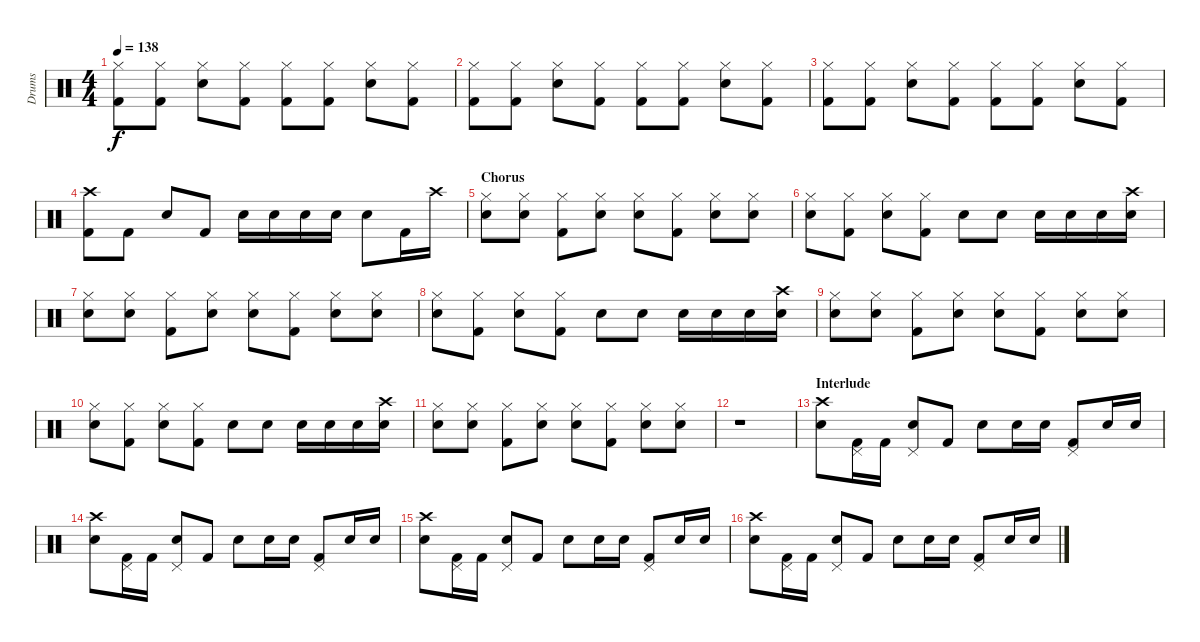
\track ("Drums" "Drums") {instrument percussion}
\staff {score}
\articulation defaults
\ts (4 4)
\tempo 138
\clef neutral
\ks c
("Hi-Hat (closed)" "Kick (hit) 2").8{dy f} ("Hi-Hat (closed)" "Kick (hit) 2").8 ("Hi-Hat (closed)" "Electric Snare (hit)").8 ("Hi-Hat (closed)" "Kick (hit) 2").8 ("Hi-Hat (closed)" "Kick (hit) 2").8 ("Hi-Hat (closed)" "Kick (hit) 2").8 ("Hi-Hat (closed)" "Electric Snare (hit)").8 ("Hi-Hat (closed)" "Kick (hit) 2").8 |
("Hi-Hat (closed)" "Kick (hit) 2").8 ("Hi-Hat (closed)" "Kick (hit) 2").8 ("Hi-Hat (closed)" "Electric Snare (hit)").8 ("Hi-Hat (closed)" "Kick (hit) 2").8 ("Hi-Hat (closed)" "Kick (hit) 2").8 ("Hi-Hat (closed)" "Kick (hit) 2").8 ("Hi-Hat (closed)" "Electric Snare (hit)").8 ("Hi-Hat (closed)" "Kick (hit) 2").8 |
("Hi-Hat (closed)" "Kick (hit) 2").8 ("Hi-Hat (closed)" "Kick (hit) 2").8 ("Hi-Hat (closed)" "Electric Snare (hit)").8 ("Hi-Hat (closed)" "Kick (hit) 2").8 ("Hi-Hat (closed)" "Kick (hit) 2").8 ("Hi-Hat (closed)" "Kick (hit) 2").8 ("Hi-Hat (closed)" "Electric Snare (hit)").8 ("Hi-Hat (closed)" "Kick (hit) 2").8 |
("Crash high (hit)" "Kick (hit) 2").8 "Kick (hit) 2".8 "Electric Snare (hit)".8 "Kick (hit) 2".8 "Electric Snare (hit)".16 "Electric Snare (hit)".16 "Electric Snare (hit)".16 "Electric Snare (hit)".16 "Electric Snare (hit)".8 "Kick (hit) 2".16 "Crash high (hit)".16 |
\section ("" "Chorus")
("Hi-Hat (closed)" "Electric Snare (hit)").8 ("Hi-Hat (closed)" "Electric Snare (hit)").8 ("Hi-Hat (closed)" "Kick (hit) 2").8 ("Hi-Hat (closed)" "Electric Snare (hit)").8 ("Hi-Hat (closed)" "Electric Snare (hit)").8 ("Hi-Hat (closed)" "Kick (hit) 2").8 ("Hi-Hat (closed)" "Electric Snare (hit)").8 ("Hi-Hat (closed)" "Electric Snare (hit)").8 |
("Hi-Hat (closed)" "Electric Snare (hit)").8 ("Hi-Hat (closed)" "Kick (hit) 2").8 ("Hi-Hat (closed)" "Electric Snare (hit)").8 ("Hi-Hat (closed)" "Kick (hit) 2").8 "Electric Snare (hit)".8 "Electric Snare (hit)".8 "Electric Snare (hit)".16 "Electric Snare (hit)".16 "Electric Snare (hit)".16 ("Crash high (hit)" "Electric Snare (hit)").16 |
("Hi-Hat (closed)" "Electric Snare (hit)").8 ("Hi-Hat (closed)" "Electric Snare (hit)").8 ("Hi-Hat (closed)" "Kick (hit) 2").8 ("Hi-Hat (closed)" "Electric Snare (hit)").8 ("Hi-Hat (closed)" "Electric Snare (hit)").8 ("Hi-Hat (closed)" "Kick (hit) 2").8 ("Hi-Hat (closed)" "Electric Snare (hit)").8 ("Hi-Hat (closed)" "Electric Snare (hit)").8 |
("Hi-Hat (closed)" "Electric Snare (hit)").8 ("Hi-Hat (closed)" "Kick (hit) 2").8 ("Hi-Hat (closed)" "Electric Snare (hit)").8 ("Hi-Hat (closed)" "Kick (hit) 2").8 "Electric Snare (hit)".8 "Electric Snare (hit)".8 "Electric Snare (hit)".16 "Electric Snare (hit)".16 "Electric Snare (hit)".16 ("Crash high (hit)" "Electric Snare (hit)").16 |
("Hi-Hat (closed)" "Electric Snare (hit)").8 ("Hi-Hat (closed)" "Electric Snare (hit)").8 ("Hi-Hat (closed)" "Kick (hit) 2").8 ("Hi-Hat (closed)" "Electric Snare (hit)").8 ("Hi-Hat (closed)" "Electric Snare (hit)").8 ("Hi-Hat (closed)" "Kick (hit) 2").8 ("Hi-Hat (closed)" "Electric Snare (hit)").8 ("Hi-Hat (closed)" "Electric Snare (hit)").8 |
("Hi-Hat (closed)" "Electric Snare (hit)").8 ("Hi-Hat (closed)" "Kick (hit) 2").8 ("Hi-Hat (closed)" "Electric Snare (hit)").8 ("Hi-Hat (closed)" "Kick (hit) 2").8 "Electric Snare (hit)".8 "Electric Snare (hit)".8 "Electric Snare (hit)".16 "Electric Snare (hit)".16 "Electric Snare (hit)".16 ("Crash high (hit)" "Electric Snare (hit)").16 |
("Hi-Hat (closed)" "Electric Snare (hit)").8 ("Hi-Hat (closed)" "Electric Snare (hit)").8 ("Hi-Hat (closed)" "Kick (hit) 2").8 ("Hi-Hat (closed)" "Electric Snare (hit)").8 ("Hi-Hat (closed)" "Electric Snare (hit)").8 ("Hi-Hat (closed)" "Kick (hit) 2").8 ("Hi-Hat (closed)" "Electric Snare (hit)").8 ("Hi-Hat (closed)" "Electric Snare (hit)").8 |
r.1 |
\section ("" "Interlude")
("Crash high (hit)" "Electric Snare (hit)").8 ("Pedal Hi-Hat (hit)" "Kick (hit) 2").16 "Kick (hit) 2".16 ("Pedal Hi-Hat (hit)" "Electric Snare (hit)").8 "Kick (hit) 2".8 "Electric Snare (hit)".8 "Electric Snare (hit)".16 "Electric Snare (hit)".16 ("Pedal Hi-Hat (hit)" "Kick (hit) 2").8 "Electric Snare (hit)".16 "Electric Snare (hit)".16 |
("Crash high (hit)" "Electric Snare (hit)").8 ("Pedal Hi-Hat (hit)" "Kick (hit) 2").16 "Kick (hit) 2".16 ("Pedal Hi-Hat (hit)" "Electric Snare (hit)").8 "Kick (hit) 2".8 "Electric Snare (hit)".8 "Electric Snare (hit)".16 "Electric Snare (hit)".16 ("Pedal Hi-Hat (hit)" "Kick (hit) 2").8 "Electric Snare (hit)".16 "Electric Snare (hit)".16 |
("Crash high (hit)" "Electric Snare (hit)").8 ("Pedal Hi-Hat (hit)" "Kick (hit) 2").16 "Kick (hit) 2".16 ("Pedal Hi-Hat (hit)" "Electric Snare (hit)").8 "Kick (hit) 2".8 "Electric Snare (hit)".8 "Electric Snare (hit)".16 "Electric Snare (hit)".16 ("Pedal Hi-Hat (hit)" "Kick (hit) 2").8 "Electric Snare (hit)".16 "Electric Snare (hit)".16 |
("Crash high (hit)" "Electric Snare (hit)").8 ("Pedal Hi-Hat (hit)" "Kick (hit) 2").16 "Kick (hit) 2".16 ("Pedal Hi-Hat (hit)" "Electric Snare (hit)").8 "Kick (hit) 2".8 "Electric Snare (hit)".8 "Electric Snare (hit)".16 "Electric Snare (hit)".16 ("Pedal Hi-Hat (hit)" "Kick (hit) 2").8 "Electric Snare (hit)".16 "Electric Snare (hit)".16
